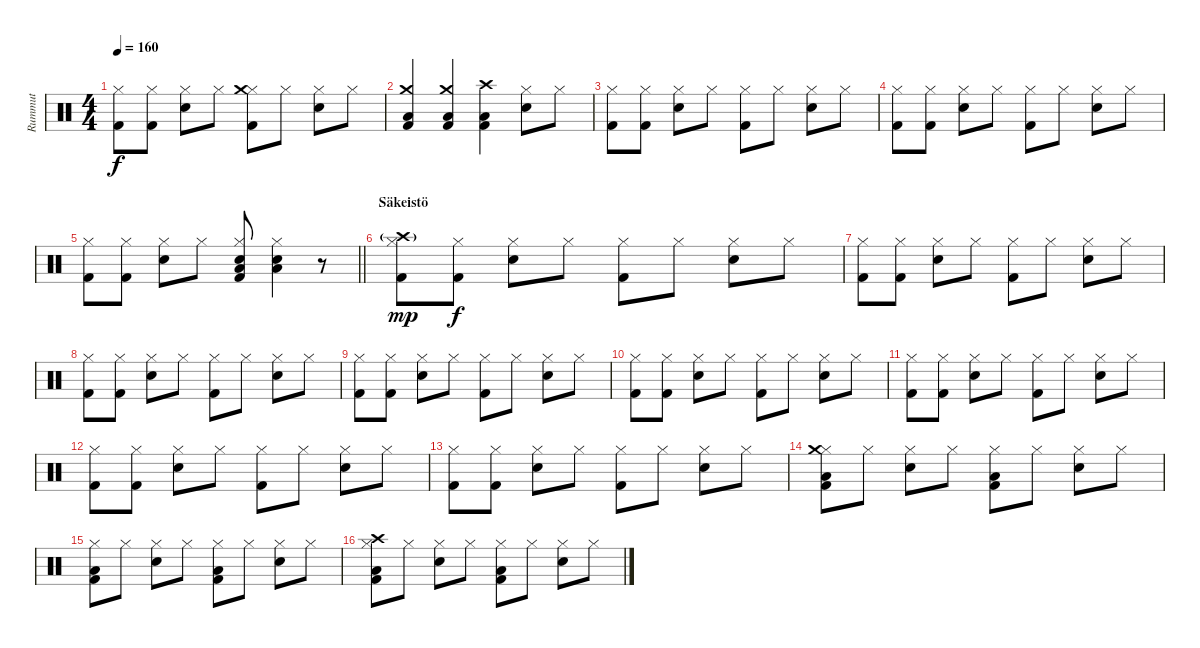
\track ("Rummut" "Rummut") {instrument percussion}
\staff {score}
\articulation defaults
\ts (4 4)
\tempo 160
\clef neutral
\ks c
("Kick (hit) 2" "Hi-Hat (closed)").8{dy f} ("Kick (hit) 2" "Hi-Hat (closed)").8 ("Snare (hit) 2" "Hi-Hat (closed)").8 "Hi-Hat (closed)".8 ("Kick (hit) 2" "Hi-Hat (closed)" "Crash medium (hit)").8 "Hi-Hat (closed)".8 ("Snare (hit) 2" "Hi-Hat (closed)").8 "Hi-Hat (closed)".8 |
("Kick (hit) 2" "Crash medium (hit)" "Low Tom (hit)").4 ("Kick (hit) 2" "Crash medium (hit)" "Low Tom (hit)").4 ("Kick (hit) 2" "Crash high (hit)" "Low Tom (hit)").4 ("Snare (hit) 2" "Hi-Hat (closed)").8 "Hi-Hat (closed)".8 |
("Kick (hit) 2" "Hi-Hat (closed)").8 ("Kick (hit) 2" "Hi-Hat (closed)").8 ("Snare (hit) 2" "Hi-Hat (closed)").8 "Hi-Hat (closed)".8 ("Kick (hit) 2" "Hi-Hat (closed)").8 "Hi-Hat (closed)".8 ("Snare (hit) 2" "Hi-Hat (closed)").8 "Hi-Hat (closed)".8 |
("Kick (hit) 2" "Hi-Hat (closed)").8 ("Kick (hit) 2" "Hi-Hat (closed)").8 ("Snare (hit) 2" "Hi-Hat (closed)").8 "Hi-Hat (closed)".8 ("Kick (hit) 2" "Hi-Hat (closed)").8 "Hi-Hat (closed)".8 ("Snare (hit) 2" "Hi-Hat (closed)").8 "Hi-Hat (closed)".8 |
\barLineRight lightlight
("Kick (hit) 2" "Hi-Hat (closed)").8 ("Kick (hit) 2" "Hi-Hat (closed)").8 ("Snare (hit) 2" "Hi-Hat (closed)").8 "Hi-Hat (closed)".8 ("Snare (hit) 2" "Low Tom (hit)" "Kick (hit) 2" "Hi-Hat (closed)").8 ("Snare (hit) 2" "Low Tom (hit)" "Hi-Hat (closed)").4 r.8 |
\section ("" "Säkeistö")
("Crash high (hit)"{g} "Kick (hit) 2" "Hi-Hat (closed)").8{dy mp} ("Kick (hit) 2" "Hi-Hat (closed)").8{dy f} ("Snare (hit) 2" "Hi-Hat (closed)").8 "Hi-Hat (closed)".8 ("Kick (hit) 2" "Hi-Hat (closed)").8 "Hi-Hat (closed)".8 ("Snare (hit) 2" "Hi-Hat (closed)").8 "Hi-Hat (closed)".8 |
("Kick (hit) 2" "Hi-Hat (closed)").8 ("Kick (hit) 2" "Hi-Hat (closed)").8 ("Snare (hit) 2" "Hi-Hat (closed)").8 "Hi-Hat (closed)".8 ("Kick (hit) 2" "Hi-Hat (closed)").8 "Hi-Hat (closed)".8 ("Snare (hit) 2" "Hi-Hat (closed)").8 "Hi-Hat (closed)".8 |
("Kick (hit) 2" "Hi-Hat (closed)").8 ("Kick (hit) 2" "Hi-Hat (closed)").8 ("Snare (hit) 2" "Hi-Hat (closed)").8 "Hi-Hat (closed)".8 ("Kick (hit) 2" "Hi-Hat (closed)").8 "Hi-Hat (closed)".8 ("Snare (hit) 2" "Hi-Hat (closed)").8 "Hi-Hat (closed)".8 |
("Kick (hit) 2" "Hi-Hat (closed)").8 ("Kick (hit) 2" "Hi-Hat (closed)").8 ("Snare (hit) 2" "Hi-Hat (closed)").8 "Hi-Hat (closed)".8 ("Kick (hit) 2" "Hi-Hat (closed)").8 "Hi-Hat (closed)".8 ("Snare (hit) 2" "Hi-Hat (closed)").8 "Hi-Hat (closed)".8 |
("Kick (hit) 2" "Hi-Hat (closed)").8 ("Kick (hit) 2" "Hi-Hat (closed)").8 ("Snare (hit) 2" "Hi-Hat (closed)").8 "Hi-Hat (closed)".8 ("Kick (hit) 2" "Hi-Hat (closed)").8 "Hi-Hat (closed)".8 ("Snare (hit) 2" "Hi-Hat (closed)").8 "Hi-Hat (closed)".8 |
("Kick (hit) 2" "Hi-Hat (closed)").8 ("Kick (hit) 2" "Hi-Hat (closed)").8 ("Snare (hit) 2" "Hi-Hat (closed)").8 "Hi-Hat (closed)".8 ("Kick (hit) 2" "Hi-Hat (closed)").8 "Hi-Hat (closed)".8 ("Snare (hit) 2" "Hi-Hat (closed)").8 "Hi-Hat (closed)".8 |
("Kick (hit) 2" "Hi-Hat (closed)").8 ("Kick (hit) 2" "Hi-Hat (closed)").8 ("Snare (hit) 2" "Hi-Hat (closed)").8 "Hi-Hat (closed)".8 ("Kick (hit) 2" "Hi-Hat (closed)").8 "Hi-Hat (closed)".8 ("Snare (hit) 2" "Hi-Hat (closed)").8 "Hi-Hat (closed)".8 |
("Kick (hit) 2" "Hi-Hat (closed)").8 ("Kick (hit) 2" "Hi-Hat (closed)").8 ("Snare (hit) 2" "Hi-Hat (closed)").8 "Hi-Hat (closed)".8 ("Kick (hit) 2" "Hi-Hat (closed)").8 "Hi-Hat (closed)".8 ("Snare (hit) 2" "Hi-Hat (closed)").8 "Hi-Hat (closed)".8 |
("Kick (hit) 2" "Low Tom (hit)" "Hi-Hat (closed)" "Crash medium (hit)").8 "Hi-Hat (closed)".8 ("Snare (hit) 2" "Hi-Hat (closed)").8 "Hi-Hat (closed)".8 ("Kick (hit) 2" "Low Tom (hit)" "Hi-Hat (closed)").8 "Hi-Hat (closed)".8 ("Snare (hit) 2" "Hi-Hat (closed)").8 "Hi-Hat (closed)".8 |
("Kick (hit) 2" "Low Tom (hit)" "Hi-Hat (closed)").8 "Hi-Hat (closed)".8 ("Snare (hit) 2" "Hi-Hat (closed)").8 "Hi-Hat (closed)".8 ("Kick (hit) 2" "Low Tom (hit)" "Hi-Hat (closed)").8 "Hi-Hat (closed)".8 ("Snare (hit) 2" "Hi-Hat (closed)").8 "Hi-Hat (closed)".8 |
("Kick (hit) 2" "Low Tom (hit)" "Hi-Hat (closed)" "Crash high (hit)").8 "Hi-Hat (closed)".8 ("Snare (hit) 2" "Hi-Hat (closed)").8 "Hi-Hat (closed)".8 ("Kick (hit) 2" "Low Tom (hit)" "Hi-Hat (closed)").8 "Hi-Hat (closed)".8 ("Snare (hit) 2" "Hi-Hat (closed)").8 "Hi-Hat (closed)".8
